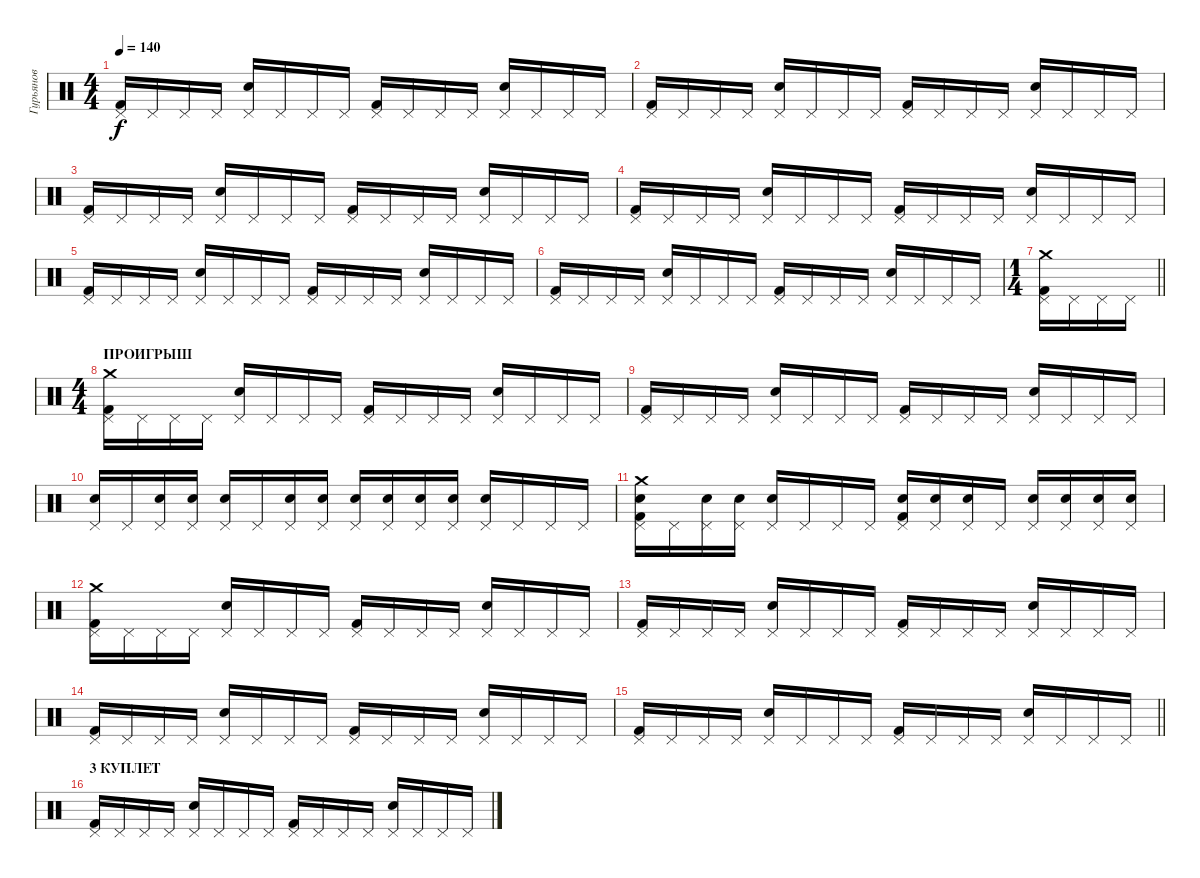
\track ("Гурьянов" "Гурьянов") {instrument percussion}
\staff {score}
\articulation defaults
\ts (4 4)
\tempo 140
\clef neutral
\ks c
("Pedal Hi-Hat (hit)" "Kick (hit) 2").16{dy f} "Pedal Hi-Hat (hit)".16 "Pedal Hi-Hat (hit)".16 "Pedal Hi-Hat (hit)".16 ("Pedal Hi-Hat (hit)" "Electric Snare (hit)").16 "Pedal Hi-Hat (hit)".16 "Pedal Hi-Hat (hit)".16 "Pedal Hi-Hat (hit)".16 ("Pedal Hi-Hat (hit)" "Kick (hit) 2").16 "Pedal Hi-Hat (hit)".16 "Pedal Hi-Hat (hit)".16 "Pedal Hi-Hat (hit)".16 ("Pedal Hi-Hat (hit)" "Electric Snare (hit)").16 "Pedal Hi-Hat (hit)".16 "Pedal Hi-Hat (hit)".16 "Pedal Hi-Hat (hit)".16 |
("Pedal Hi-Hat (hit)" "Kick (hit) 2").16 "Pedal Hi-Hat (hit)".16 "Pedal Hi-Hat (hit)".16 "Pedal Hi-Hat (hit)".16 ("Pedal Hi-Hat (hit)" "Electric Snare (hit)").16 "Pedal Hi-Hat (hit)".16 "Pedal Hi-Hat (hit)".16 "Pedal Hi-Hat (hit)".16 ("Pedal Hi-Hat (hit)" "Kick (hit) 2").16 "Pedal Hi-Hat (hit)".16 "Pedal Hi-Hat (hit)".16 "Pedal Hi-Hat (hit)".16 ("Pedal Hi-Hat (hit)" "Electric Snare (hit)").16 "Pedal Hi-Hat (hit)".16 "Pedal Hi-Hat (hit)".16 "Pedal Hi-Hat (hit)".16 |
("Pedal Hi-Hat (hit)" "Kick (hit) 2").16 "Pedal Hi-Hat (hit)".16 "Pedal Hi-Hat (hit)".16 "Pedal Hi-Hat (hit)".16 ("Pedal Hi-Hat (hit)" "Electric Snare (hit)").16 "Pedal Hi-Hat (hit)".16 "Pedal Hi-Hat (hit)".16 "Pedal Hi-Hat (hit)".16 ("Pedal Hi-Hat (hit)" "Kick (hit) 2").16 "Pedal Hi-Hat (hit)".16 "Pedal Hi-Hat (hit)".16 "Pedal Hi-Hat (hit)".16 ("Pedal Hi-Hat (hit)" "Electric Snare (hit)").16 "Pedal Hi-Hat (hit)".16 "Pedal Hi-Hat (hit)".16 "Pedal Hi-Hat (hit)".16 |
("Pedal Hi-Hat (hit)" "Kick (hit) 2").16 "Pedal Hi-Hat (hit)".16 "Pedal Hi-Hat (hit)".16 "Pedal Hi-Hat (hit)".16 ("Pedal Hi-Hat (hit)" "Electric Snare (hit)").16 "Pedal Hi-Hat (hit)".16 "Pedal Hi-Hat (hit)".16 "Pedal Hi-Hat (hit)".16 ("Pedal Hi-Hat (hit)" "Kick (hit) 2").16 "Pedal Hi-Hat (hit)".16 "Pedal Hi-Hat (hit)".16 "Pedal Hi-Hat (hit)".16 ("Pedal Hi-Hat (hit)" "Electric Snare (hit)").16 "Pedal Hi-Hat (hit)".16 "Pedal Hi-Hat (hit)".16 "Pedal Hi-Hat (hit)".16 |
("Pedal Hi-Hat (hit)" "Kick (hit) 2").16 "Pedal Hi-Hat (hit)".16 "Pedal Hi-Hat (hit)".16 "Pedal Hi-Hat (hit)".16 ("Pedal Hi-Hat (hit)" "Electric Snare (hit)").16 "Pedal Hi-Hat (hit)".16 "Pedal Hi-Hat (hit)".16 "Pedal Hi-Hat (hit)".16 ("Pedal Hi-Hat (hit)" "Kick (hit) 2").16 "Pedal Hi-Hat (hit)".16 "Pedal Hi-Hat (hit)".16 "Pedal Hi-Hat (hit)".16 ("Pedal Hi-Hat (hit)" "Electric Snare (hit)").16 "Pedal Hi-Hat (hit)".16 "Pedal Hi-Hat (hit)".16 "Pedal Hi-Hat (hit)".16 |
("Pedal Hi-Hat (hit)" "Kick (hit) 2").16 "Pedal Hi-Hat (hit)".16 "Pedal Hi-Hat (hit)".16 "Pedal Hi-Hat (hit)".16 ("Pedal Hi-Hat (hit)" "Electric Snare (hit)").16 "Pedal Hi-Hat (hit)".16 "Pedal Hi-Hat (hit)".16 "Pedal Hi-Hat (hit)".16 ("Pedal Hi-Hat (hit)" "Kick (hit) 2").16 "Pedal Hi-Hat (hit)".16 "Pedal Hi-Hat (hit)".16 "Pedal Hi-Hat (hit)".16 ("Pedal Hi-Hat (hit)" "Electric Snare (hit)").16 "Pedal Hi-Hat (hit)".16 "Pedal Hi-Hat (hit)".16 "Pedal Hi-Hat (hit)".16 |
\ts (1 4)
\barLineRight lightlight
("Pedal Hi-Hat (hit)" "Kick (hit) 2" "Crash medium (hit)").16 "Pedal Hi-Hat (hit)".16 "Pedal Hi-Hat (hit)".16 "Pedal Hi-Hat (hit)".16 |
\ts (4 4)
\section ("" "ПРОИГРЫШ")
("Pedal Hi-Hat (hit)" "Kick (hit) 2" "Crash medium (hit)").16 "Pedal Hi-Hat (hit)".16 "Pedal Hi-Hat (hit)".16 "Pedal Hi-Hat (hit)".16 ("Pedal Hi-Hat (hit)" "Electric Snare (hit)").16 "Pedal Hi-Hat (hit)".16 "Pedal Hi-Hat (hit)".16 "Pedal Hi-Hat (hit)".16 ("Pedal Hi-Hat (hit)" "Kick (hit) 2").16 "Pedal Hi-Hat (hit)".16 "Pedal Hi-Hat (hit)".16 "Pedal Hi-Hat (hit)".16 ("Pedal Hi-Hat (hit)" "Electric Snare (hit)").16 "Pedal Hi-Hat (hit)".16 "Pedal Hi-Hat (hit)".16 "Pedal Hi-Hat (hit)".16 |
("Pedal Hi-Hat (hit)" "Kick (hit) 2").16 "Pedal Hi-Hat (hit)".16 "Pedal Hi-Hat (hit)".16 "Pedal Hi-Hat (hit)".16 ("Pedal Hi-Hat (hit)" "Electric Snare (hit)").16 "Pedal Hi-Hat (hit)".16 "Pedal Hi-Hat (hit)".16 "Pedal Hi-Hat (hit)".16 ("Pedal Hi-Hat (hit)" "Kick (hit) 2").16 "Pedal Hi-Hat (hit)".16 "Pedal Hi-Hat (hit)".16 "Pedal Hi-Hat (hit)".16 ("Pedal Hi-Hat (hit)" "Electric Snare (hit)").16 "Pedal Hi-Hat (hit)".16 "Pedal Hi-Hat (hit)".16 "Pedal Hi-Hat (hit)".16 |
("Pedal Hi-Hat (hit)" "Electric Snare (hit)").16 "Pedal Hi-Hat (hit)".16 ("Pedal Hi-Hat (hit)" "Electric Snare (hit)").16 ("Pedal Hi-Hat (hit)" "Electric Snare (hit)").16 ("Pedal Hi-Hat (hit)" "Electric Snare (hit)").16 "Pedal Hi-Hat (hit)".16 ("Pedal Hi-Hat (hit)" "Electric Snare (hit)").16 ("Pedal Hi-Hat (hit)" "Electric Snare (hit)").16 ("Pedal Hi-Hat (hit)" "Electric Snare (hit)").16 ("Pedal Hi-Hat (hit)" "Electric Snare (hit)").16 ("Pedal Hi-Hat (hit)" "Electric Snare (hit)").16 ("Pedal Hi-Hat (hit)" "Electric Snare (hit)").16 ("Pedal Hi-Hat (hit)" "Electric Snare (hit)").16 "Pedal Hi-Hat (hit)".16 "Pedal Hi-Hat (hit)".16 "Pedal Hi-Hat (hit)".16 |
("Pedal Hi-Hat (hit)" "Crash medium (hit)" "Kick (hit) 2" "Electric Snare (hit)").16 "Pedal Hi-Hat (hit)".16 ("Pedal Hi-Hat (hit)" "Electric Snare (hit)").16 ("Pedal Hi-Hat (hit)" "Electric Snare (hit)").16 ("Pedal Hi-Hat (hit)" "Electric Snare (hit)").16 "Pedal Hi-Hat (hit)".16 "Pedal Hi-Hat (hit)".16 "Pedal Hi-Hat (hit)".16 ("Pedal Hi-Hat (hit)" "Kick (hit) 2" "Electric Snare (hit)").16 ("Pedal Hi-Hat (hit)" "Electric Snare (hit)").16 ("Pedal Hi-Hat (hit)" "Electric Snare (hit)").16 "Pedal Hi-Hat (hit)".16 ("Pedal Hi-Hat (hit)" "Electric Snare (hit)").16 ("Pedal Hi-Hat (hit)" "Electric Snare (hit)").16 ("Pedal Hi-Hat (hit)" "Electric Snare (hit)").16 ("Pedal Hi-Hat (hit)" "Electric Snare (hit)").16 |
("Pedal Hi-Hat (hit)" "Kick (hit) 2" "Crash medium (hit)").16 "Pedal Hi-Hat (hit)".16 "Pedal Hi-Hat (hit)".16 "Pedal Hi-Hat (hit)".16 ("Pedal Hi-Hat (hit)" "Electric Snare (hit)").16 "Pedal Hi-Hat (hit)".16 "Pedal Hi-Hat (hit)".16 "Pedal Hi-Hat (hit)".16 ("Pedal Hi-Hat (hit)" "Kick (hit) 2").16 "Pedal Hi-Hat (hit)".16 "Pedal Hi-Hat (hit)".16 "Pedal Hi-Hat (hit)".16 ("Pedal Hi-Hat (hit)" "Electric Snare (hit)").16 "Pedal Hi-Hat (hit)".16 "Pedal Hi-Hat (hit)".16 "Pedal Hi-Hat (hit)".16 |
("Pedal Hi-Hat (hit)" "Kick (hit) 2").16 "Pedal Hi-Hat (hit)".16 "Pedal Hi-Hat (hit)".16 "Pedal Hi-Hat (hit)".16 ("Pedal Hi-Hat (hit)" "Electric Snare (hit)").16 "Pedal Hi-Hat (hit)".16 "Pedal Hi-Hat (hit)".16 "Pedal Hi-Hat (hit)".16 ("Pedal Hi-Hat (hit)" "Kick (hit) 2").16 "Pedal Hi-Hat (hit)".16 "Pedal Hi-Hat (hit)".16 "Pedal Hi-Hat (hit)".16 ("Pedal Hi-Hat (hit)" "Electric Snare (hit)").16 "Pedal Hi-Hat (hit)".16 "Pedal Hi-Hat (hit)".16 "Pedal Hi-Hat (hit)".16 |
("Pedal Hi-Hat (hit)" "Kick (hit) 2").16 "Pedal Hi-Hat (hit)".16 "Pedal Hi-Hat (hit)".16 "Pedal Hi-Hat (hit)".16 ("Pedal Hi-Hat (hit)" "Electric Snare (hit)").16 "Pedal Hi-Hat (hit)".16 "Pedal Hi-Hat (hit)".16 "Pedal Hi-Hat (hit)".16 ("Pedal Hi-Hat (hit)" "Kick (hit) 2").16 "Pedal Hi-Hat (hit)".16 "Pedal Hi-Hat (hit)".16 "Pedal Hi-Hat (hit)".16 ("Pedal Hi-Hat (hit)" "Electric Snare (hit)").16 "Pedal Hi-Hat (hit)".16 "Pedal Hi-Hat (hit)".16 "Pedal Hi-Hat (hit)".16 |
\barLineRight lightlight
("Pedal Hi-Hat (hit)" "Kick (hit) 2").16 "Pedal Hi-Hat (hit)".16 "Pedal Hi-Hat (hit)".16 "Pedal Hi-Hat (hit)".16 ("Pedal Hi-Hat (hit)" "Electric Snare (hit)").16 "Pedal Hi-Hat (hit)".16 "Pedal Hi-Hat (hit)".16 "Pedal Hi-Hat (hit)".16 ("Pedal Hi-Hat (hit)" "Kick (hit) 2").16 "Pedal Hi-Hat (hit)".16 "Pedal Hi-Hat (hit)".16 "Pedal Hi-Hat (hit)".16 ("Pedal Hi-Hat (hit)" "Electric Snare (hit)").16 "Pedal Hi-Hat (hit)".16 "Pedal Hi-Hat (hit)".16 "Pedal Hi-Hat (hit)".16 |
\section ("" "3 КУПЛЕТ")
("Pedal Hi-Hat (hit)" "Kick (hit) 2").16 "Pedal Hi-Hat (hit)".16 "Pedal Hi-Hat (hit)".16 "Pedal Hi-Hat (hit)".16 ("Pedal Hi-Hat (hit)" "Electric Snare (hit)").16 "Pedal Hi-Hat (hit)".16 "Pedal Hi-Hat (hit)".16 "Pedal Hi-Hat (hit)".16 ("Pedal Hi-Hat (hit)" "Kick (hit) 2").16 "Pedal Hi-Hat (hit)".16 "Pedal Hi-Hat (hit)".16 "Pedal Hi-Hat (hit)".16 ("Pedal Hi-Hat (hit)" "Electric Snare (hit)").16 "Pedal Hi-Hat (hit)".16 "Pedal Hi-Hat (hit)".16 "Pedal Hi-Hat (hit)".16
